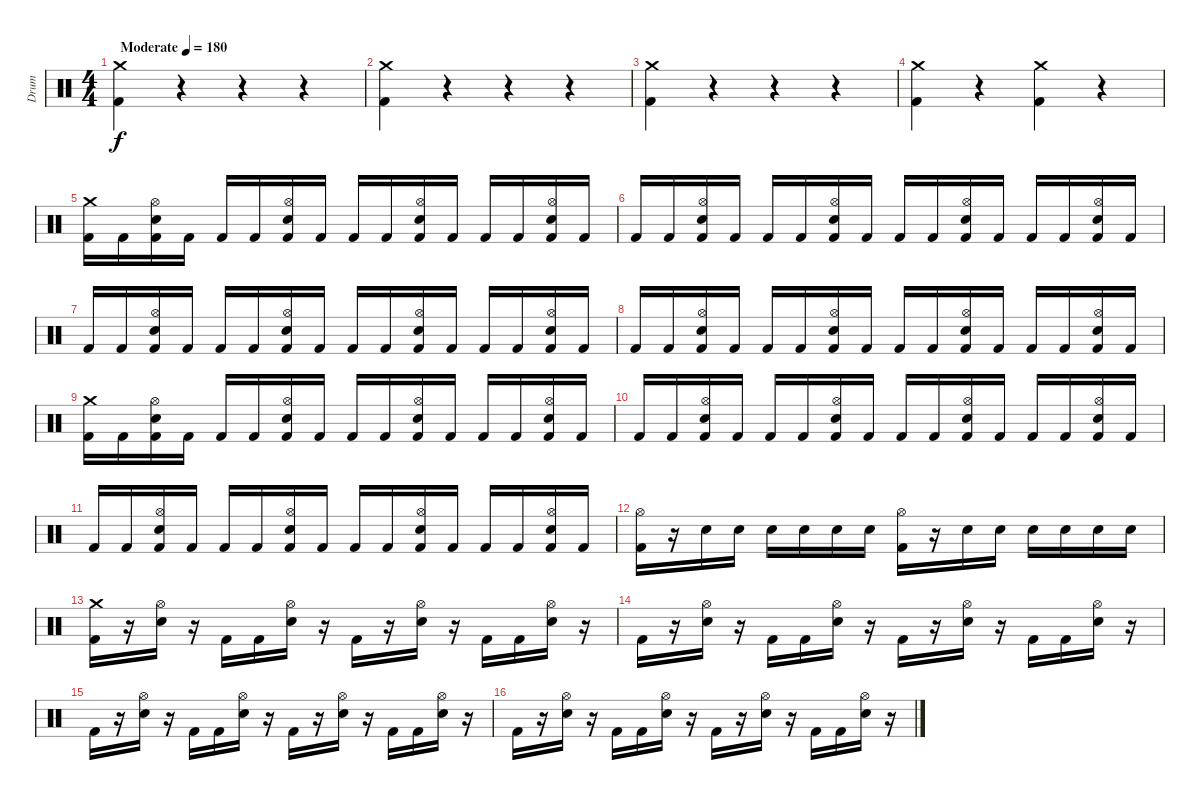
\track ("Drum" "Drum") {instrument percussion}
\staff {score}
\articulation defaults
\ts (4 4)
\tempo (180 "Moderate")
\clef neutral
\ks c
("Crash medium (hit)" "Kick (hit) 2").4{dy f} r.4 r.4 r.4 |
("Crash medium (hit)" "Kick (hit) 2").4 r.4 r.4 r.4 |
("Crash medium (hit)" "Kick (hit) 2").4 r.4 r.4 r.4 |
("Crash medium (hit)" "Kick (hit) 2").4 r.4 ("Crash medium (hit)" "Kick (hit) 2").4 r.4 |
("Crash medium (hit)" "Kick (hit) 2").16 "Kick (hit) 2".16 ("Hi-Hat (open)" "Electric Snare (hit)" "Kick (hit) 2").16 "Kick (hit) 2".16 "Kick (hit) 2".16 "Kick (hit) 2".16 ("Hi-Hat (open)" "Electric Snare (hit)" "Kick (hit) 2").16 "Kick (hit) 2".16 "Kick (hit) 2".16 "Kick (hit) 2".16 ("Hi-Hat (open)" "Electric Snare (hit)" "Kick (hit) 2").16 "Kick (hit) 2".16 "Kick (hit) 2".16 "Kick (hit) 2".16 ("Hi-Hat (open)" "Electric Snare (hit)" "Kick (hit) 2").16 "Kick (hit) 2".16 |
"Kick (hit) 2".16 "Kick (hit) 2".16 ("Hi-Hat (open)" "Electric Snare (hit)" "Kick (hit) 2").16 "Kick (hit) 2".16 "Kick (hit) 2".16 "Kick (hit) 2".16 ("Hi-Hat (open)" "Electric Snare (hit)" "Kick (hit) 2").16 "Kick (hit) 2".16 "Kick (hit) 2".16 "Kick (hit) 2".16 ("Hi-Hat (open)" "Electric Snare (hit)" "Kick (hit) 2").16 "Kick (hit) 2".16 "Kick (hit) 2".16 "Kick (hit) 2".16 ("Hi-Hat (open)" "Electric Snare (hit)" "Kick (hit) 2").16 "Kick (hit) 2".16 |
"Kick (hit) 2".16 "Kick (hit) 2".16 ("Hi-Hat (open)" "Electric Snare (hit)" "Kick (hit) 2").16 "Kick (hit) 2".16 "Kick (hit) 2".16 "Kick (hit) 2".16 ("Hi-Hat (open)" "Electric Snare (hit)" "Kick (hit) 2").16 "Kick (hit) 2".16 "Kick (hit) 2".16 "Kick (hit) 2".16 ("Hi-Hat (open)" "Electric Snare (hit)" "Kick (hit) 2").16 "Kick (hit) 2".16 "Kick (hit) 2".16 "Kick (hit) 2".16 ("Hi-Hat (open)" "Electric Snare (hit)" "Kick (hit) 2").16 "Kick (hit) 2".16 |
"Kick (hit) 2".16 "Kick (hit) 2".16 ("Hi-Hat (open)" "Electric Snare (hit)" "Kick (hit) 2").16 "Kick (hit) 2".16 "Kick (hit) 2".16 "Kick (hit) 2".16 ("Hi-Hat (open)" "Electric Snare (hit)" "Kick (hit) 2").16 "Kick (hit) 2".16 "Kick (hit) 2".16 "Kick (hit) 2".16 ("Hi-Hat (open)" "Electric Snare (hit)" "Kick (hit) 2").16 "Kick (hit) 2".16 "Kick (hit) 2".16 "Kick (hit) 2".16 ("Hi-Hat (open)" "Electric Snare (hit)" "Kick (hit) 2").16 "Kick (hit) 2".16 |
("Crash medium (hit)" "Kick (hit) 2").16 "Kick (hit) 2".16 ("Hi-Hat (open)" "Electric Snare (hit)" "Kick (hit) 2").16 "Kick (hit) 2".16 "Kick (hit) 2".16 "Kick (hit) 2".16 ("Hi-Hat (open)" "Electric Snare (hit)" "Kick (hit) 2").16 "Kick (hit) 2".16 "Kick (hit) 2".16 "Kick (hit) 2".16 ("Hi-Hat (open)" "Electric Snare (hit)" "Kick (hit) 2").16 "Kick (hit) 2".16 "Kick (hit) 2".16 "Kick (hit) 2".16 ("Hi-Hat (open)" "Electric Snare (hit)" "Kick (hit) 2").16 "Kick (hit) 2".16 |
"Kick (hit) 2".16 "Kick (hit) 2".16 ("Hi-Hat (open)" "Electric Snare (hit)" "Kick (hit) 2").16 "Kick (hit) 2".16 "Kick (hit) 2".16 "Kick (hit) 2".16 ("Hi-Hat (open)" "Electric Snare (hit)" "Kick (hit) 2").16 "Kick (hit) 2".16 "Kick (hit) 2".16 "Kick (hit) 2".16 ("Hi-Hat (open)" "Electric Snare (hit)" "Kick (hit) 2").16 "Kick (hit) 2".16 "Kick (hit) 2".16 "Kick (hit) 2".16 ("Hi-Hat (open)" "Electric Snare (hit)" "Kick (hit) 2").16 "Kick (hit) 2".16 |
"Kick (hit) 2".16 "Kick (hit) 2".16 ("Hi-Hat (open)" "Electric Snare (hit)" "Kick (hit) 2").16 "Kick (hit) 2".16 "Kick (hit) 2".16 "Kick (hit) 2".16 ("Hi-Hat (open)" "Electric Snare (hit)" "Kick (hit) 2").16 "Kick (hit) 2".16 "Kick (hit) 2".16 "Kick (hit) 2".16 ("Hi-Hat (open)" "Electric Snare (hit)" "Kick (hit) 2").16 "Kick (hit) 2".16 "Kick (hit) 2".16 "Kick (hit) 2".16 ("Hi-Hat (open)" "Electric Snare (hit)" "Kick (hit) 2").16 "Kick (hit) 2".16 |
("Hi-Hat (open)" "Kick (hit) 2").16 r.16 "Electric Snare (hit)".16 "Electric Snare (hit)".16 "Electric Snare (hit)".16 "Electric Snare (hit)".16 "Electric Snare (hit)".16 "Electric Snare (hit)".16 ("Hi-Hat (open)" "Kick (hit) 2").16 r.16 "Electric Snare (hit)".16 "Electric Snare (hit)".16 "Electric Snare (hit)".16 "Electric Snare (hit)".16 "Electric Snare (hit)".16 "Electric Snare (hit)".16 |
("Crash medium (hit)" "Kick (hit) 2").16 r.16 ("Hi-Hat (open)" "Electric Snare (hit)").16 r.16 "Kick (hit) 2".16 "Kick (hit) 2".16 ("Hi-Hat (open)" "Electric Snare (hit)").16 r.16 "Kick (hit) 2".16 r.16 ("Hi-Hat (open)" "Electric Snare (hit)").16 r.16 "Kick (hit) 2".16 "Kick (hit) 2".16 ("Hi-Hat (open)" "Electric Snare (hit)").16 r.16 |
"Kick (hit) 2".16 r.16 ("Hi-Hat (open)" "Electric Snare (hit)").16 r.16 "Kick (hit) 2".16 "Kick (hit) 2".16 ("Hi-Hat (open)" "Electric Snare (hit)").16 r.16 "Kick (hit) 2".16 r.16 ("Hi-Hat (open)" "Electric Snare (hit)").16 r.16 "Kick (hit) 2".16 "Kick (hit) 2".16 ("Hi-Hat (open)" "Electric Snare (hit)").16 r.16 |
"Kick (hit) 2".16 r.16 ("Hi-Hat (open)" "Electric Snare (hit)").16 r.16 "Kick (hit) 2".16 "Kick (hit) 2".16 ("Hi-Hat (open)" "Electric Snare (hit)").16 r.16 "Kick (hit) 2".16 r.16 ("Hi-Hat (open)" "Electric Snare (hit)").16 r.16 "Kick (hit) 2".16 "Kick (hit) 2".16 ("Hi-Hat (open)" "Electric Snare (hit)").16 r.16 |
"Kick (hit) 2".16 r.16 ("Hi-Hat (open)" "Electric Snare (hit)").16 r.16 "Kick (hit) 2".16 "Kick (hit) 2".16 ("Hi-Hat (open)" "Electric Snare (hit)").16 r.16 "Kick (hit) 2".16 r.16 ("Hi-Hat (open)" "Electric Snare (hit)").16 r.16 "Kick (hit) 2".16 "Kick (hit) 2".16 ("Hi-Hat (open)" "Electric Snare (hit)").16 r.16
